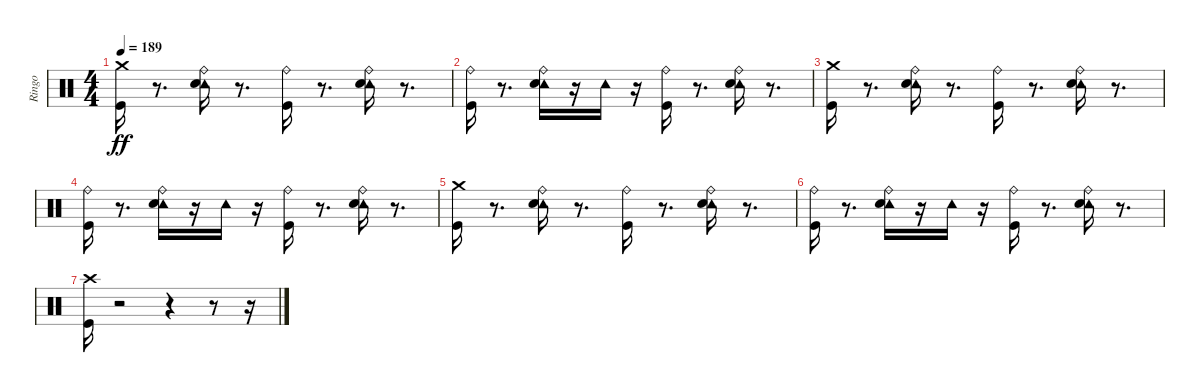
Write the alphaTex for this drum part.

\track ("Ringo" "Ringo") {instrument percussion}
\staff {score}
\articulation defaults
\ts (4 4)
\tempo 189
\clef neutral
\ks c
("Crash medium (hit)" "Kick (hit)").16{dy ff} r.8{d} ("Tambourine (hit)" "Ride (bell)" "Snare (hit) 2").16 r.8{d} ("Ride (bell)" "Kick (hit)").16 r.8{d} ("Ride (bell)" "Tambourine (hit)" "Snare (hit) 2").16 r.8{d} |
("Ride (bell)" "Kick (hit)").16 r.8{d} ("Ride (bell)" "Tambourine (hit)" "Snare (hit) 2").16 r.16 "Tambourine (hit)".16 r.16 ("Ride (bell)" "Kick (hit)").16 r.8{d} ("Ride (bell)" "Tambourine (hit)" "Snare (hit) 2").16 r.8{d} |
("Crash medium (hit)" "Kick (hit)").16 r.8{d} ("Tambourine (hit)" "Ride (bell)" "Snare (hit) 2").16 r.8{d} ("Ride (bell)" "Kick (hit)").16 r.8{d} ("Tambourine (hit)" "Ride (bell)" "Snare (hit) 2").16 r.8{d} |
("Ride (bell)" "Kick (hit)").16 r.8{d} ("Tambourine (hit)" "Ride (bell)" "Snare (hit) 2").16 r.16 "Tambourine (hit)".16 r.16 ("Ride (bell)" "Kick (hit)").16 r.8{d} ("Ride (bell)" "Tambourine (hit)" "Snare (hit) 2").16 r.8{d} |
("Crash medium (hit)" "Kick (hit)").16 r.8{d} ("Tambourine (hit)" "Ride (bell)" "Snare (hit) 2").16 r.8{d} ("Ride (bell)" "Kick (hit)").16 r.8{d} ("Ride (bell)" "Tambourine (hit)" "Snare (hit) 2").16 r.8{d} |
("Ride (bell)" "Kick (hit)").16 r.8{d} ("Ride (bell)" "Tambourine (hit)" "Snare (hit) 2").16 r.16 "Tambourine (hit)".16 r.16 ("Ride (bell)" "Kick (hit)").16 r.8{d} ("Ride (bell)" "Tambourine (hit)" "Snare (hit) 2").16 r.8{d} |
("Crash high (hit)" "Kick (hit)").16 r.2 r.4 r.8 r.16
